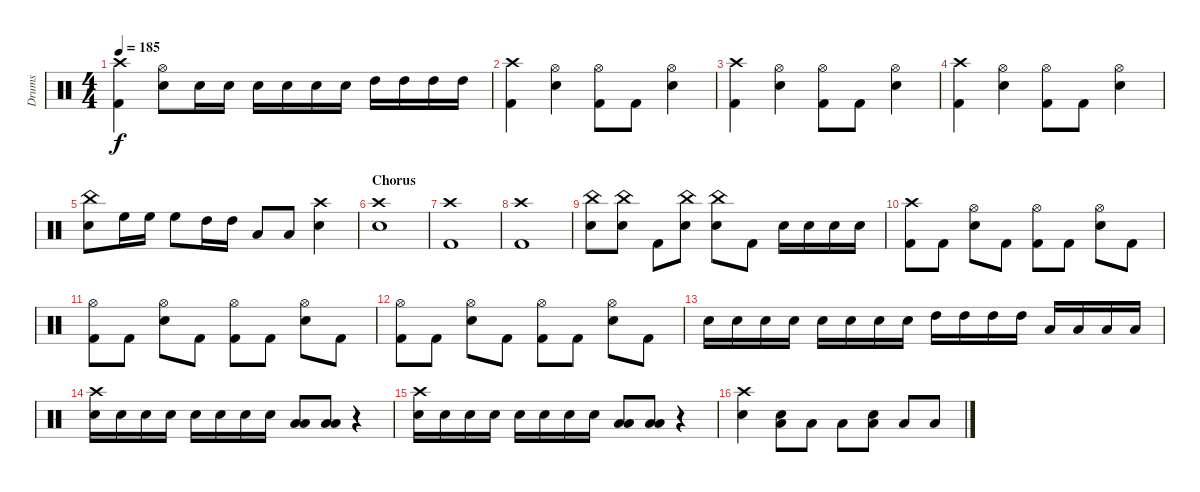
\track ("Drums" "Drums") {instrument percussion}
\staff {score}
\articulation defaults
\ts (4 4)
\tempo 185
\clef neutral
\ks c
("Crash high (hit)" "Kick (hit) 2").4{dy f} ("Hi-Hat (open)" "Electric Snare (hit)").8 "Electric Snare (hit)".16 "Electric Snare (hit)".16 "Electric Snare (hit)".16 "Electric Snare (hit)".16 "Electric Snare (hit)".16 "Electric Snare (hit)".16 "High Tom (hit)".16 "High Tom (hit)".16 "High Tom (hit)".16 "High Tom (hit)".16 |
("Crash high (hit)" "Kick (hit) 2").4 ("Hi-Hat (open)" "Electric Snare (hit)").4 ("Hi-Hat (open)" "Kick (hit) 2").8 "Kick (hit) 2".8 ("Hi-Hat (open)" "Electric Snare (hit)").4 |
("Crash high (hit)" "Kick (hit) 2").4 ("Hi-Hat (open)" "Electric Snare (hit)").4 ("Hi-Hat (open)" "Kick (hit) 2").8 "Kick (hit) 2".8 ("Hi-Hat (open)" "Electric Snare (hit)").4 |
("Crash high (hit)" "Kick (hit) 2").4 ("Hi-Hat (open)" "Electric Snare (hit)").4 ("Hi-Hat (open)" "Kick (hit) 2").8 "Kick (hit) 2".8 ("Hi-Hat (open)" "Electric Snare (hit)").4 |
("China (hit)" "Electric Snare (hit)").8 "High Floor Tom (hit)".16 "High Floor Tom (hit)".16 "High Floor Tom (hit)".8 "High Tom (hit)".16 "High Tom (hit)".16 "Low Tom (hit)".8 "Low Tom (hit)".8 ("Crash high (hit)" "Electric Snare (hit)").4 |
\section ("" "Chorus")
("Crash high (hit)" "Electric Snare (hit)").1 |
("Crash high (hit)" "Kick (hit) 2").1 |
("Crash high (hit)" "Kick (hit) 2").1 |
("China (hit)" "Electric Snare (hit)").8 ("China (hit)" "Electric Snare (hit)").8 "Kick (hit) 2".8 ("China (hit)" "Electric Snare (hit)").8 ("China (hit)" "Electric Snare (hit)").8 "Kick (hit) 2".8 "Electric Snare (hit)".16 "Electric Snare (hit)".16 "Electric Snare (hit)".16 "Electric Snare (hit)".16 |
("Crash high (hit)" "Kick (hit) 2").8 "Kick (hit) 2".8 ("Hi-Hat (open)" "Electric Snare (hit)").8 "Kick (hit) 2".8 ("Hi-Hat (open)" "Kick (hit) 2").8 "Kick (hit) 2".8 ("Hi-Hat (open)" "Electric Snare (hit)").8 "Kick (hit) 2".8 |
("Hi-Hat (open)" "Kick (hit) 2").8 "Kick (hit) 2".8 ("Hi-Hat (open)" "Electric Snare (hit)").8 "Kick (hit) 2".8 ("Hi-Hat (open)" "Kick (hit) 2").8 "Kick (hit) 2".8 ("Hi-Hat (open)" "Electric Snare (hit)").8 "Kick (hit) 2".8 |
("Hi-Hat (open)" "Kick (hit) 2").8 "Kick (hit) 2".8 ("Hi-Hat (open)" "Electric Snare (hit)").8 "Kick (hit) 2".8 ("Hi-Hat (open)" "Kick (hit) 2").8 "Kick (hit) 2".8 ("Hi-Hat (open)" "Electric Snare (hit)").8 "Kick (hit) 2".8 |
"Electric Snare (hit)".16 "Electric Snare (hit)".16 "Electric Snare (hit)".16 "Electric Snare (hit)".16 "Electric Snare (hit)".16 "Electric Snare (hit)".16 "Electric Snare (hit)".16 "Electric Snare (hit)".16 "High Tom (hit)".16 "High Tom (hit)".16 "High Tom (hit)".16 "High Tom (hit)".16 "Low Floor Tom (hit)".16 "Low Floor Tom (hit)".16 "Low Floor Tom (hit)".16 "Low Floor Tom (hit)".16 |
("Crash high (hit)" "Electric Snare (hit)").16 "Electric Snare (hit)".16 "Electric Snare (hit)".16 "Electric Snare (hit)".16 "Electric Snare (hit)".16 "Electric Snare (hit)".16 "Electric Snare (hit)".16 "Electric Snare (hit)".16 ("Low Tom (hit)" "Low Floor Tom (hit)").8 ("Low Tom (hit)" "Low Floor Tom (hit)").8 r.4 |
("Crash high (hit)" "Electric Snare (hit)").16 "Electric Snare (hit)".16 "Electric Snare (hit)".16 "Electric Snare (hit)".16 "Electric Snare (hit)".16 "Electric Snare (hit)".16 "Electric Snare (hit)".16 "Electric Snare (hit)".16 ("Low Tom (hit)" "Low Floor Tom (hit)").8 ("Low Tom (hit)" "Low Floor Tom (hit)").8 r.4 |
("Crash high (hit)" "Electric Snare (hit)").4 ("Low Tom (hit)" "Electric Snare (hit)").8 "Low Tom (hit)".8 "Low Tom (hit)".8 ("Low Tom (hit)" "Electric Snare (hit)").8 "Low Tom (hit)".8 "Low Tom (hit)".8
